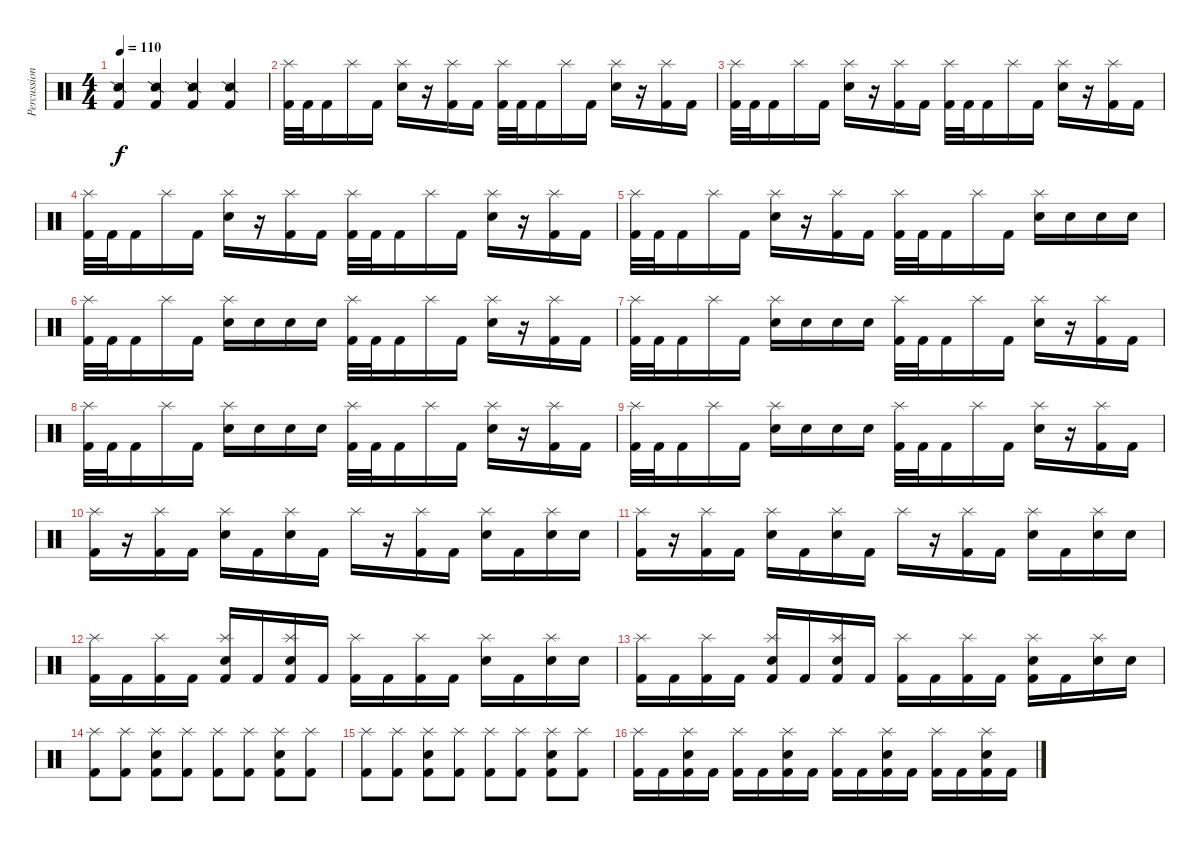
\track ("Percussion" "Percussion") {instrument percussion}
\staff {score}
\articulation defaults
\ts (4 4)
\tempo 110
\clef neutral
\ks c
("Snare (side stick) 2" "Kick (hit) 2").4{dy f} ("Snare (side stick) 2" "Kick (hit) 2").4 ("Snare (side stick) 2" "Kick (hit) 2").4 ("Snare (side stick) 2" "Kick (hit) 2").4 |
("Splash (hit)" "Kick (hit) 2").32 "Kick (hit) 2".32 "Kick (hit) 2".16 "Splash (hit)".16 "Kick (hit) 2".16 ("Splash (hit)" "Electric Snare (hit)").16 r.16 ("Splash (hit)" "Kick (hit) 2").16 "Kick (hit) 2".16 ("Splash (hit)" "Kick (hit) 2").32 "Kick (hit) 2".32 "Kick (hit) 2".16 "Splash (hit)".16 "Kick (hit) 2".16 ("Splash (hit)" "Electric Snare (hit)").16 r.16 ("Splash (hit)" "Kick (hit) 2").16 "Kick (hit) 2".16 |
("Splash (hit)" "Kick (hit) 2").32 "Kick (hit) 2".32 "Kick (hit) 2".16 "Splash (hit)".16 "Kick (hit) 2".16 ("Splash (hit)" "Electric Snare (hit)").16 r.16 ("Splash (hit)" "Kick (hit) 2").16 "Kick (hit) 2".16 ("Splash (hit)" "Kick (hit) 2").32 "Kick (hit) 2".32 "Kick (hit) 2".16 "Splash (hit)".16 "Kick (hit) 2".16 ("Splash (hit)" "Electric Snare (hit)").16 r.16 ("Splash (hit)" "Kick (hit) 2").16 "Kick (hit) 2".16 |
("Splash (hit)" "Kick (hit) 2").32 "Kick (hit) 2".32 "Kick (hit) 2".16 "Splash (hit)".16 "Kick (hit) 2".16 ("Splash (hit)" "Electric Snare (hit)").16 r.16 ("Splash (hit)" "Kick (hit) 2").16 "Kick (hit) 2".16 ("Splash (hit)" "Kick (hit) 2").32 "Kick (hit) 2".32 "Kick (hit) 2".16 "Splash (hit)".16 "Kick (hit) 2".16 ("Splash (hit)" "Electric Snare (hit)").16 r.16 ("Splash (hit)" "Kick (hit) 2").16 "Kick (hit) 2".16 |
("Splash (hit)" "Kick (hit) 2").32 "Kick (hit) 2".32 "Kick (hit) 2".16 "Splash (hit)".16 "Kick (hit) 2".16 ("Splash (hit)" "Electric Snare (hit)").16 r.16 ("Splash (hit)" "Kick (hit) 2").16 "Kick (hit) 2".16 ("Splash (hit)" "Kick (hit) 2").32 "Kick (hit) 2".32 "Kick (hit) 2".16 "Splash (hit)".16 "Kick (hit) 2".16 ("Splash (hit)" "Electric Snare (hit)").16 "Electric Snare (hit)".16 "Electric Snare (hit)".16 "Electric Snare (hit)".16 |
("Splash (hit)" "Kick (hit) 2").32 "Kick (hit) 2".32 "Kick (hit) 2".16 "Splash (hit)".16 "Kick (hit) 2".16 ("Splash (hit)" "Electric Snare (hit)").16 "Electric Snare (hit)".16 "Electric Snare (hit)".16 "Electric Snare (hit)".16 ("Splash (hit)" "Kick (hit) 2").32 "Kick (hit) 2".32 "Kick (hit) 2".16 "Splash (hit)".16 "Kick (hit) 2".16 ("Splash (hit)" "Electric Snare (hit)").16 r.16 ("Splash (hit)" "Kick (hit) 2").16 "Kick (hit) 2".16 |
("Splash (hit)" "Kick (hit) 2").32 "Kick (hit) 2".32 "Kick (hit) 2".16 "Splash (hit)".16 "Kick (hit) 2".16 ("Splash (hit)" "Electric Snare (hit)").16 "Electric Snare (hit)".16 "Electric Snare (hit)".16 "Electric Snare (hit)".16 ("Splash (hit)" "Kick (hit) 2").32 "Kick (hit) 2".32 "Kick (hit) 2".16 "Splash (hit)".16 "Kick (hit) 2".16 ("Splash (hit)" "Electric Snare (hit)").16 r.16 ("Splash (hit)" "Kick (hit) 2").16 "Kick (hit) 2".16 |
("Splash (hit)" "Kick (hit) 2").32 "Kick (hit) 2".32 "Kick (hit) 2".16 "Splash (hit)".16 "Kick (hit) 2".16 ("Splash (hit)" "Electric Snare (hit)").16 "Electric Snare (hit)".16 "Electric Snare (hit)".16 "Electric Snare (hit)".16 ("Splash (hit)" "Kick (hit) 2").32 "Kick (hit) 2".32 "Kick (hit) 2".16 "Splash (hit)".16 "Kick (hit) 2".16 ("Splash (hit)" "Electric Snare (hit)").16 r.16 ("Splash (hit)" "Kick (hit) 2").16 "Kick (hit) 2".16 |
("Splash (hit)" "Kick (hit) 2").32 "Kick (hit) 2".32 "Kick (hit) 2".16 "Splash (hit)".16 "Kick (hit) 2".16 ("Splash (hit)" "Electric Snare (hit)").16 "Electric Snare (hit)".16 "Electric Snare (hit)".16 "Electric Snare (hit)".16 ("Splash (hit)" "Kick (hit) 2").32 "Kick (hit) 2".32 "Kick (hit) 2".16 "Splash (hit)".16 "Kick (hit) 2".16 ("Splash (hit)" "Electric Snare (hit)").16 r.16 ("Splash (hit)" "Kick (hit) 2").16 "Kick (hit) 2".16 |
("Splash (hit)" "Kick (hit) 2").16 r.16 ("Splash (hit)" "Kick (hit) 2").16 "Kick (hit) 2".16 ("Splash (hit)" "Electric Snare (hit)").16 "Kick (hit) 2".16 ("Splash (hit)" "Electric Snare (hit)").16 "Kick (hit) 2".16 "Splash (hit)".16 r.16 ("Splash (hit)" "Kick (hit) 2").16 "Kick (hit) 2".16 ("Splash (hit)" "Electric Snare (hit)").16 "Kick (hit) 2".16 ("Splash (hit)" "Electric Snare (hit)").16 "Electric Snare (hit)".16 |
("Splash (hit)" "Kick (hit) 2").16 r.16 ("Splash (hit)" "Kick (hit) 2").16 "Kick (hit) 2".16 ("Splash (hit)" "Electric Snare (hit)").16 "Kick (hit) 2".16 ("Splash (hit)" "Electric Snare (hit)").16 "Kick (hit) 2".16 "Splash (hit)".16 r.16 ("Splash (hit)" "Kick (hit) 2").16 "Kick (hit) 2".16 ("Splash (hit)" "Electric Snare (hit)").16 "Kick (hit) 2".16 ("Splash (hit)" "Electric Snare (hit)").16 "Electric Snare (hit)".16 |
("Splash (hit)" "Kick (hit) 2").16 "Kick (hit) 2".16 ("Splash (hit)" "Kick (hit) 2").16 "Kick (hit) 2".16 ("Splash (hit)" "Electric Snare (hit)" "Kick (hit) 2").16 "Kick (hit) 2".16 ("Splash (hit)" "Electric Snare (hit)" "Kick (hit) 2").16 "Kick (hit) 2".16 ("Splash (hit)" "Kick (hit) 2").16 "Kick (hit) 2".16 ("Splash (hit)" "Kick (hit) 2").16 "Kick (hit) 2".16 ("Splash (hit)" "Electric Snare (hit)").16 "Kick (hit) 2".16 ("Splash (hit)" "Electric Snare (hit)").16 "Electric Snare (hit)".16 |
("Splash (hit)" "Kick (hit) 2").16 "Kick (hit) 2".16 ("Splash (hit)" "Kick (hit) 2").16 "Kick (hit) 2".16 ("Splash (hit)" "Electric Snare (hit)" "Kick (hit) 2").16 "Kick (hit) 2".16 ("Splash (hit)" "Electric Snare (hit)" "Kick (hit) 2").16 "Kick (hit) 2".16 ("Splash (hit)" "Kick (hit) 2").16 "Kick (hit) 2".16 ("Splash (hit)" "Kick (hit) 2").16 "Kick (hit) 2".16 ("Splash (hit)" "Electric Snare (hit)" "Kick (hit) 2").16 "Kick (hit) 2".16 ("Splash (hit)" "Electric Snare (hit)").16 "Electric Snare (hit)".16 |
("Splash (hit)" "Kick (hit) 2").8 ("Splash (hit)" "Kick (hit) 2").8 ("Splash (hit)" "Electric Snare (hit)" "Kick (hit) 2").8 ("Splash (hit)" "Kick (hit) 2").8 ("Splash (hit)" "Kick (hit) 2").8 ("Splash (hit)" "Kick (hit) 2").8 ("Splash (hit)" "Electric Snare (hit)" "Kick (hit) 2").8 ("Splash (hit)" "Kick (hit) 2").8 |
("Splash (hit)" "Kick (hit) 2").8 ("Splash (hit)" "Kick (hit) 2").8 ("Splash (hit)" "Electric Snare (hit)" "Kick (hit) 2").8 ("Splash (hit)" "Kick (hit) 2").8 ("Splash (hit)" "Kick (hit) 2").8 ("Splash (hit)" "Kick (hit) 2").8 ("Splash (hit)" "Electric Snare (hit)" "Kick (hit) 2").8 ("Splash (hit)" "Kick (hit) 2").8 |
("Splash (hit)" "Kick (hit) 2").16 "Kick (hit) 2".16 ("Splash (hit)" "Electric Snare (hit)" "Kick (hit) 2").16 "Kick (hit) 2".16 ("Splash (hit)" "Kick (hit) 2").16 "Kick (hit) 2".16 ("Splash (hit)" "Electric Snare (hit)" "Kick (hit) 2").16 "Kick (hit) 2".16 ("Splash (hit)" "Kick (hit) 2").16 "Kick (hit) 2".16 ("Splash (hit)" "Electric Snare (hit)" "Kick (hit) 2").16 "Kick (hit) 2".16 ("Splash (hit)" "Kick (hit) 2").16 "Kick (hit) 2".16 ("Splash (hit)" "Electric Snare (hit)" "Kick (hit) 2").16 "Kick (hit) 2".16
